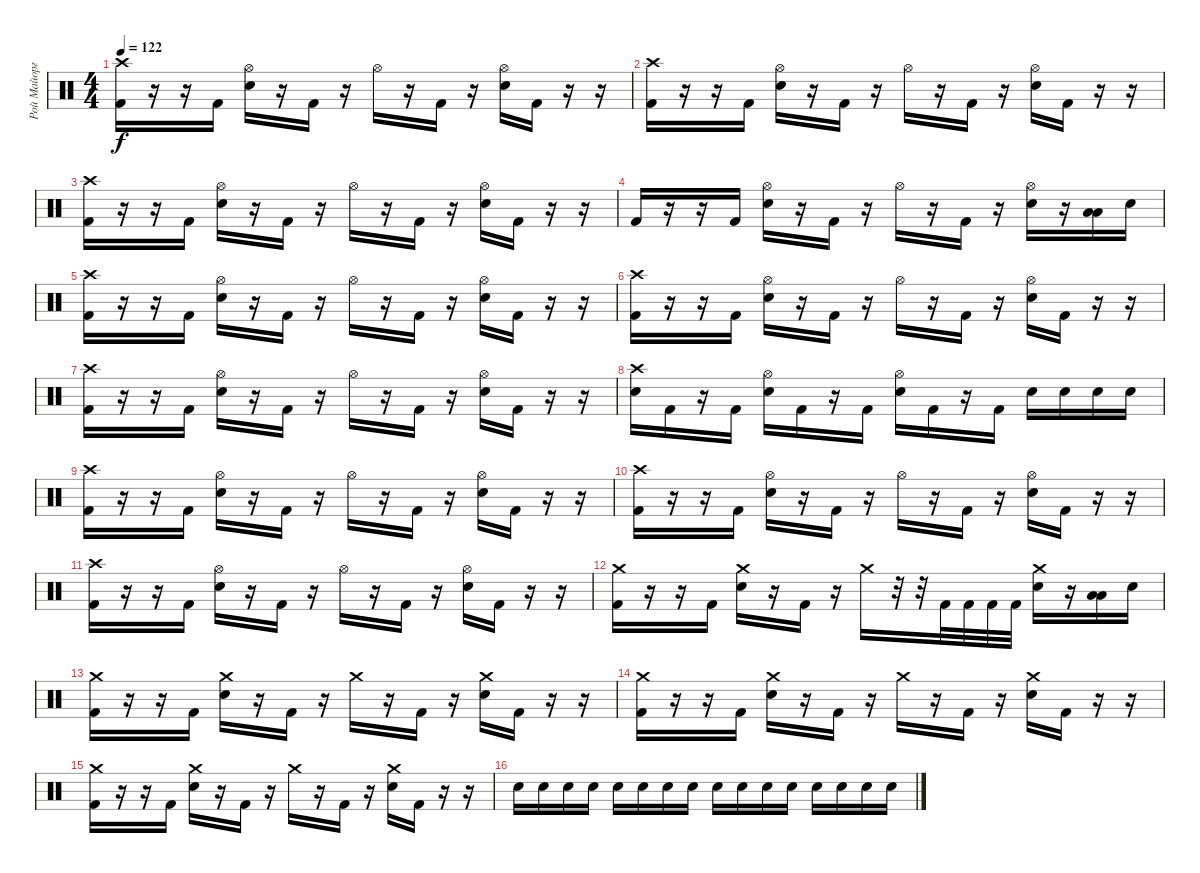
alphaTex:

\track ("Рой Майорга" "Рой Майорг") {instrument percussion}
\staff {score}
\articulation defaults
\ts (4 4)
\tempo 122
\clef neutral
\ks c
("Crash high (hit)" "Kick (hit) 2").16{dy f} r.16 r.16 "Kick (hit) 2".16 ("Hi-Hat (open)" "Electric Snare (hit)").16 r.16 "Kick (hit) 2".16 r.16 "Hi-Hat (open)".16 r.16 "Kick (hit) 2".16 r.16 ("Hi-Hat (open)" "Electric Snare (hit)").16 "Kick (hit) 2".16 r.16 r.16 |
("Crash high (hit)" "Kick (hit) 2").16 r.16 r.16 "Kick (hit) 2".16 ("Hi-Hat (open)" "Electric Snare (hit)").16 r.16 "Kick (hit) 2".16 r.16 "Hi-Hat (open)".16 r.16 "Kick (hit) 2".16 r.16 ("Hi-Hat (open)" "Electric Snare (hit)").16 "Kick (hit) 2".16 r.16 r.16 |
("Crash high (hit)" "Kick (hit) 2").16 r.16 r.16 "Kick (hit) 2".16 ("Hi-Hat (open)" "Electric Snare (hit)").16 r.16 "Kick (hit) 2".16 r.16 "Hi-Hat (open)".16 r.16 "Kick (hit) 2".16 r.16 ("Hi-Hat (open)" "Electric Snare (hit)").16 "Kick (hit) 2".16 r.16 r.16 |
"Kick (hit) 2".16 r.16 r.16 "Kick (hit) 2".16 ("Hi-Hat (open)" "Electric Snare (hit)").16 r.16 "Kick (hit) 2".16 r.16 "Hi-Hat (open)".16 r.16 "Kick (hit) 2".16 r.16 ("Hi-Hat (open)" "Electric Snare (hit)").16 r.16 ("Low Tom (hit)" "Low Tom (hit)").16 "Electric Snare (hit)".16 |
("Crash high (hit)" "Kick (hit) 2").16 r.16 r.16 "Kick (hit) 2".16 ("Hi-Hat (open)" "Electric Snare (hit)").16 r.16 "Kick (hit) 2".16 r.16 "Hi-Hat (open)".16 r.16 "Kick (hit) 2".16 r.16 ("Hi-Hat (open)" "Electric Snare (hit)").16 "Kick (hit) 2".16 r.16 r.16 |
("Crash high (hit)" "Kick (hit) 2").16 r.16 r.16 "Kick (hit) 2".16 ("Hi-Hat (open)" "Electric Snare (hit)").16 r.16 "Kick (hit) 2".16 r.16 "Hi-Hat (open)".16 r.16 "Kick (hit) 2".16 r.16 ("Hi-Hat (open)" "Electric Snare (hit)").16 "Kick (hit) 2".16 r.16 r.16 |
("Crash high (hit)" "Kick (hit) 2").16 r.16 r.16 "Kick (hit) 2".16 ("Hi-Hat (open)" "Electric Snare (hit)").16 r.16 "Kick (hit) 2".16 r.16 "Hi-Hat (open)".16 r.16 "Kick (hit) 2".16 r.16 ("Hi-Hat (open)" "Electric Snare (hit)").16 "Kick (hit) 2".16 r.16 r.16 |
("Crash high (hit)" "Electric Snare (hit)").16 "Kick (hit) 2".16 r.16 "Kick (hit) 2".16 ("Hi-Hat (open)" "Electric Snare (hit)").16 "Kick (hit) 2".16 r.16 "Kick (hit) 2".16 ("Hi-Hat (open)" "Electric Snare (hit)").16 "Kick (hit) 2".16 r.16 "Kick (hit) 2".16 "Electric Snare (hit)".16 "Electric Snare (hit)".16 "Electric Snare (hit)".16 "Electric Snare (hit)".16 |
("Crash high (hit)" "Kick (hit) 2").16 r.16 r.16 "Kick (hit) 2".16 ("Hi-Hat (open)" "Electric Snare (hit)").16 r.16 "Kick (hit) 2".16 r.16 "Hi-Hat (open)".16 r.16 "Kick (hit) 2".16 r.16 ("Hi-Hat (open)" "Electric Snare (hit)").16 "Kick (hit) 2".16 r.16 r.16 |
("Crash high (hit)" "Kick (hit) 2").16 r.16 r.16 "Kick (hit) 2".16 ("Hi-Hat (open)" "Electric Snare (hit)").16 r.16 "Kick (hit) 2".16 r.16 "Hi-Hat (open)".16 r.16 "Kick (hit) 2".16 r.16 ("Hi-Hat (open)" "Electric Snare (hit)").16 "Kick (hit) 2".16 r.16 r.16 |
("Crash high (hit)" "Kick (hit) 2").16 r.16 r.16 "Kick (hit) 2".16 ("Hi-Hat (open)" "Electric Snare (hit)").16 r.16 "Kick (hit) 2".16 r.16 "Hi-Hat (open)".16 r.16 "Kick (hit) 2".16 r.16 ("Hi-Hat (open)" "Electric Snare (hit)").16 "Kick (hit) 2".16 r.16 r.16 |
("Crash medium (hit)" "Kick (hit) 2").16 r.16 r.16 "Kick (hit) 2".16 ("Crash medium (hit)" "Electric Snare (hit)").16 r.16 "Kick (hit) 2".16 r.16 "Crash medium (hit)".16 r.32 r.32 "Kick (hit) 2".32 "Kick (hit) 2".32 "Kick (hit) 2".32 "Kick (hit) 2".32 ("Crash medium (hit)" "Electric Snare (hit)").16 r.16 ("Low Tom (hit)" "Low Tom (hit)").16 "Electric Snare (hit)".16 |
("Crash medium (hit)" "Kick (hit) 2").16 r.16 r.16 "Kick (hit) 2".16 ("Crash medium (hit)" "Electric Snare (hit)").16 r.16 "Kick (hit) 2".16 r.16 "Crash medium (hit)".16 r.16 "Kick (hit) 2".16 r.16 ("Crash medium (hit)" "Electric Snare (hit)").16 "Kick (hit) 2".16 r.16 r.16 |
("Crash medium (hit)" "Kick (hit) 2").16 r.16 r.16 "Kick (hit) 2".16 ("Crash medium (hit)" "Electric Snare (hit)").16 r.16 "Kick (hit) 2".16 r.16 "Crash medium (hit)".16 r.16 "Kick (hit) 2".16 r.16 ("Crash medium (hit)" "Electric Snare (hit)").16 "Kick (hit) 2".16 r.16 r.16 |
("Crash medium (hit)" "Kick (hit) 2").16 r.16 r.16 "Kick (hit) 2".16 ("Crash medium (hit)" "Electric Snare (hit)").16 r.16 "Kick (hit) 2".16 r.16 "Crash medium (hit)".16 r.16 "Kick (hit) 2".16 r.16 ("Crash medium (hit)" "Electric Snare (hit)").16 "Kick (hit) 2".16 r.16 r.16 |
"Electric Snare (hit)".16 "Electric Snare (hit)".16 "Electric Snare (hit)".16 "Electric Snare (hit)".16 "Electric Snare (hit)".16 "Electric Snare (hit)".16 "Electric Snare (hit)".16 "Electric Snare (hit)".16 "Electric Snare (hit)".16 "Electric Snare (hit)".16 "Electric Snare (hit)".16 "Electric Snare (hit)".16 "Electric Snare (hit)".16 "Electric Snare (hit)".16 "Electric Snare (hit)".16 "Electric Snare (hit)".16
